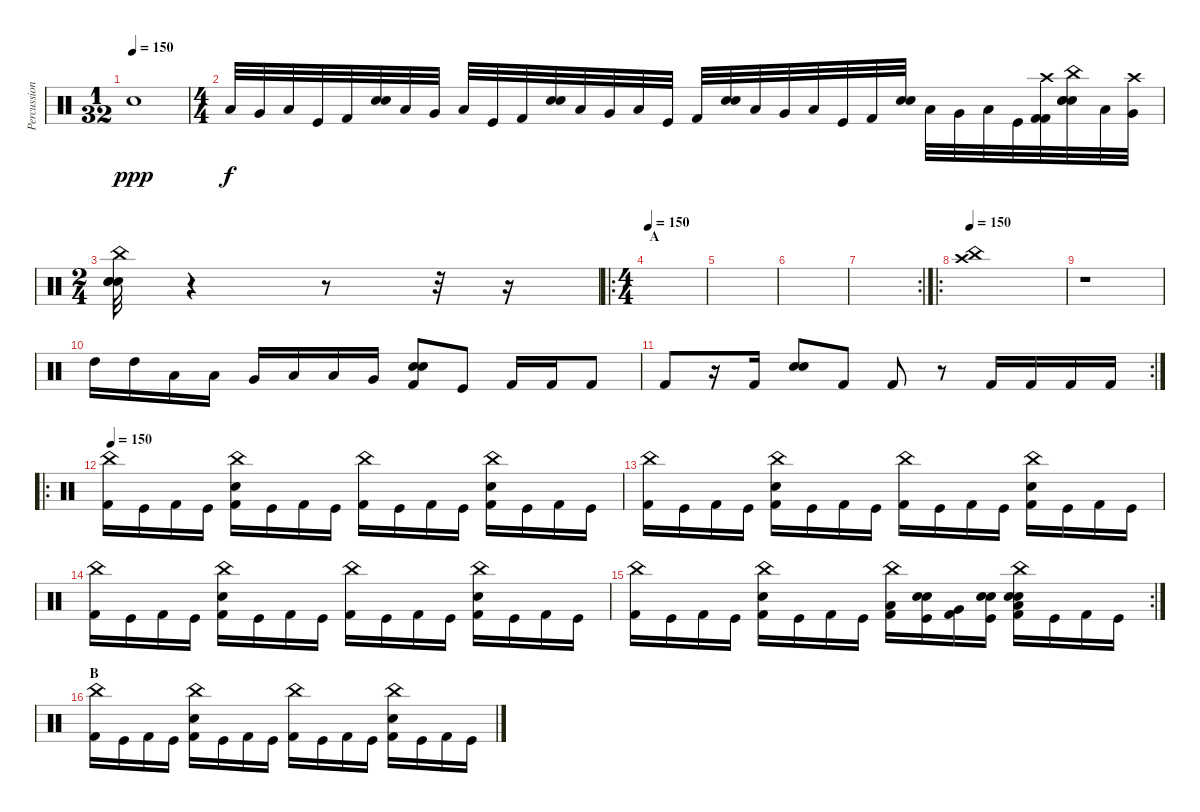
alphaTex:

\track ("Percussion" "Percussion") {instrument percussion}
\staff {score}
\articulation defaults
\ts (1 32)
\tempo 150
\tempo 110
\tempo 150
\clef neutral
\ks c "Snare (hit)".1{dy ppp}
|
\ts (4 4)
"Low Tom (hit)".32{dy f} "Very Low Tom (hit)".32 "Low Floor Tom (hit)".32 "Kick (hit)".32 "Kick (hit) 2".32 ("Snare (hit) 2" "Electric Snare (hit)").32 "Low Tom (hit)".32 "Very Low Tom (hit)".32 "Low Floor Tom (hit)".32 "Kick (hit)".32 "Kick (hit) 2".32 ("Snare (hit) 2" "Electric Snare (hit)").32 "Low Tom (hit)".32 "Very Low Tom (hit)".32 "Low Floor Tom (hit)".32 "Kick (hit)".32 "Kick (hit) 2".32 ("Snare (hit) 2" "Electric Snare (hit)").32 "Low Tom (hit)".32 "Very Low Tom (hit)".32 "Low Floor Tom (hit)".32 "Kick (hit)".32 "Kick (hit) 2".32 ("Snare (hit) 2" "Electric Snare (hit)").32 "Low Tom (hit)".32 "Very Low Tom (hit)".32 "Low Floor Tom (hit)".32 "Kick (hit)".32 ("Crash high (hit)" "Kick (hit) 2" "Kick (hit) 2").32 ("Electric Snare (hit)" "China (hit)" "Snare (hit) 2" "Snare (hit) 2").32 "Low Tom (hit)".32 ("Crash high (hit)" "Very Low Tom (hit)").32 |
\ts (2 4)
("Electric Snare (hit)" "China (hit)" "Snare (hit) 2" "Snare (hit) 2").32 r.4 r.8 r.32 r.16 |
\ro
\ts (4 4)
\section ("" "A")
\tempo 150
|
|
|
\rc 2
|
\ro
\tempo 150
("Crash high (hit)" "China (hit)").1 |
r.1 |
"High Tom (hit)".16 "High Tom (hit)".16 "Low Tom (hit)".16 "Low Tom (hit)".16 "Very Low Tom (hit)".16 "Low Floor Tom (hit)".16 "Low Floor Tom (hit)".16 "Very Low Tom (hit)".16 ("Electric Snare (hit)" "Snare (hit) 2" "Kick (hit) 2").8 "Kick (hit)".8 "Kick (hit) 2".16 "Kick (hit) 2".16 "Kick (hit) 2".8 |
\rc 2 "Kick (hit) 2".8
r.16 "Kick (hit) 2".16 ("Electric Snare (hit)" "Snare (hit) 2").8 "Kick (hit) 2".8 "Kick (hit) 2".8 r.8 "Kick (hit) 2".16 "Kick (hit) 2".16 "Kick (hit) 2".16 "Kick (hit) 2".16 |
\ro
\tempo 150
("China (hit)" "Kick (hit) 2").16 "Kick (hit)".16 "Kick (hit) 2".16 "Kick (hit)".16 ("China (hit)" "Snare (hit) 2" "Kick (hit) 2").16 "Kick (hit)".16 "Kick (hit) 2".16 "Kick (hit)".16 ("China (hit)" "Kick (hit) 2").16 "Kick (hit)".16 "Kick (hit) 2".16 "Kick (hit)".16 ("China (hit)" "Snare (hit) 2" "Kick (hit) 2").16 "Kick (hit)".16 "Kick (hit) 2".16 "Kick (hit)".16 |
("China (hit)" "Kick (hit) 2").16 "Kick (hit)".16 "Kick (hit) 2".16 "Kick (hit)".16 ("China (hit)" "Snare (hit) 2" "Kick (hit) 2").16 "Kick (hit)".16 "Kick (hit) 2".16 "Kick (hit)".16 ("China (hit)" "Kick (hit) 2").16 "Kick (hit)".16 "Kick (hit) 2".16 "Kick (hit)".16 ("China (hit)" "Snare (hit) 2" "Kick (hit) 2").16 "Kick (hit)".16 "Kick (hit) 2".16 "Kick (hit)".16 |
("China (hit)" "Kick (hit) 2").16 "Kick (hit)".16 "Kick (hit) 2".16 "Kick (hit)".16 ("China (hit)" "Snare (hit) 2" "Kick (hit) 2").16 "Kick (hit)".16 "Kick (hit) 2".16 "Kick (hit)".16 ("China (hit)" "Kick (hit) 2").16 "Kick (hit)".16 "Kick (hit) 2".16 "Kick (hit)".16 ("China (hit)" "Snare (hit) 2" "Kick (hit) 2").16 "Kick (hit)".16 "Kick (hit) 2".16 "Kick (hit)".16 |
\rc 2
("China (hit)" "Kick (hit) 2").16 "Kick (hit)".16 "Kick (hit) 2".16 "Kick (hit)".16 ("China (hit)" "Snare (hit) 2" "Kick (hit) 2").16 "Kick (hit)".16 "Kick (hit) 2".16 "Kick (hit)".16 ("China (hit)" "Low Tom (hit)" "Kick (hit) 2").16 ("Electric Snare (hit)" "Snare (hit) 2" "Kick (hit)").16 ("Very Low Tom (hit)" "Kick (hit) 2").16 ("Electric Snare (hit)" "Snare (hit) 2" "Kick (hit)").16 ("China (hit)" "Snare (hit) 2" "Electric Snare (hit)" "Low Floor Tom (hit)" "Kick (hit) 2").16 "Kick (hit)".16 "Kick (hit) 2".16 "Kick (hit)".16 |
\section ("" "B")
("China (hit)" "Kick (hit) 2").16 "Kick (hit)".16 "Kick (hit) 2".16 "Kick (hit)".16 ("China (hit)" "Snare (hit) 2" "Kick (hit) 2").16 "Kick (hit)".16 "Kick (hit) 2".16 "Kick (hit)".16 ("China (hit)" "Kick (hit) 2").16 "Kick (hit)".16 "Kick (hit) 2".16 "Kick (hit)".16 ("China (hit)" "Snare (hit) 2" "Kick (hit) 2").16 "Kick (hit)".16 "Kick (hit) 2".16 "Kick (hit)".16
